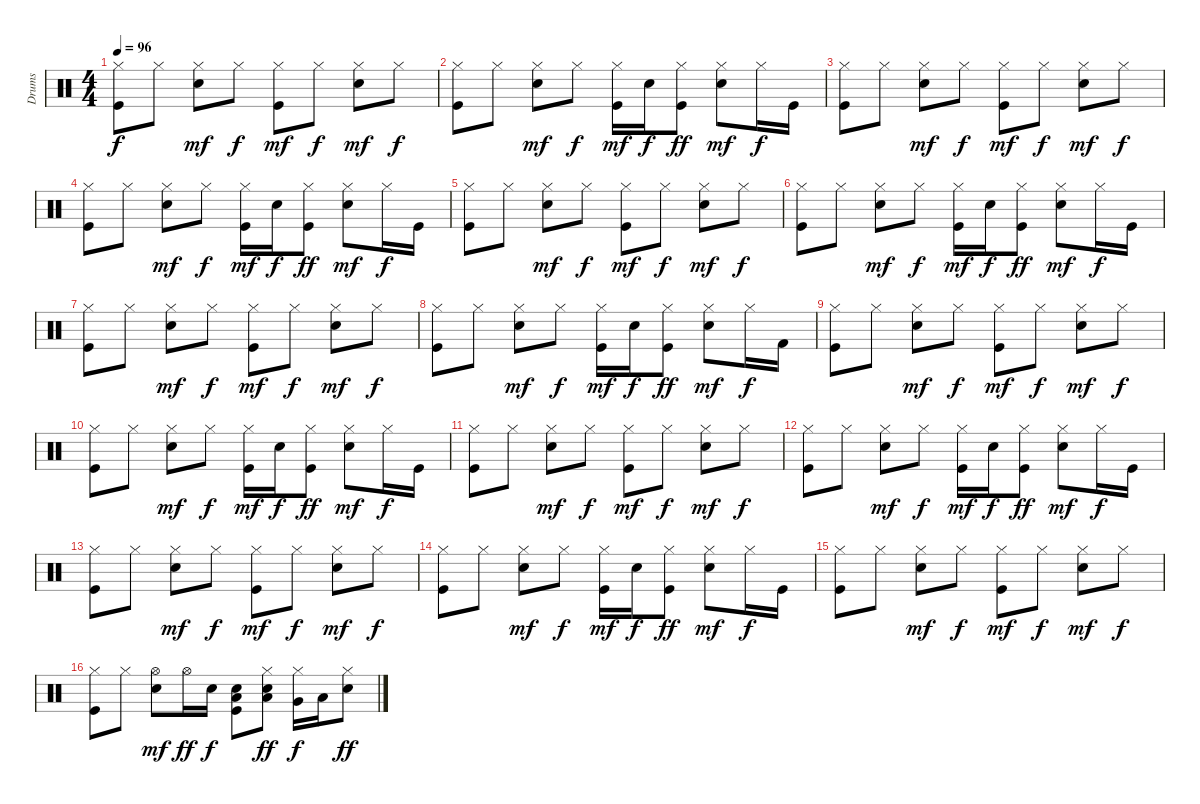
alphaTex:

\track ("Drums" "Drums") {instrument percussion}
\staff {score}
\articulation defaults
\ts (4 4)
\tempo 96
\clef neutral
\ks c
("Kick (hit)" "Hi-Hat (closed)").8{dy f} "Hi-Hat (closed)".8 ("Hi-Hat (closed)" "Electric Snare (hit)").8{dy mf} "Hi-Hat (closed)".8{dy f} ("Kick (hit)" "Hi-Hat (closed)").8{dy mf} "Hi-Hat (closed)".8{dy f} ("Hi-Hat (closed)" "Electric Snare (hit)").8{dy mf} "Hi-Hat (closed)".8{dy f} |
("Kick (hit)" "Hi-Hat (closed)").8 "Hi-Hat (closed)".8 ("Hi-Hat (closed)" "Electric Snare (hit)").8{dy mf} "Hi-Hat (closed)".8{dy f} ("Kick (hit)" "Hi-Hat (closed)").16{dy mf} "Electric Snare (hit)".16{dy f} ("Kick (hit)" "Hi-Hat (closed)").8{dy ff} ("Hi-Hat (closed)" "Electric Snare (hit)").8{dy mf} "Hi-Hat (closed)".16{dy f} "Kick (hit)".16 |
("Kick (hit)" "Hi-Hat (closed)").8 "Hi-Hat (closed)".8 ("Hi-Hat (closed)" "Electric Snare (hit)").8{dy mf} "Hi-Hat (closed)".8{dy f} ("Kick (hit)" "Hi-Hat (closed)").8{dy mf} "Hi-Hat (closed)".8{dy f} ("Hi-Hat (closed)" "Electric Snare (hit)").8{dy mf} "Hi-Hat (closed)".8{dy f} |
("Kick (hit)" "Hi-Hat (closed)").8 "Hi-Hat (closed)".8 ("Hi-Hat (closed)" "Electric Snare (hit)").8{dy mf} "Hi-Hat (closed)".8{dy f} ("Kick (hit)" "Hi-Hat (closed)").16{dy mf} "Electric Snare (hit)".16{dy f} ("Kick (hit)" "Hi-Hat (closed)").8{dy ff} ("Hi-Hat (closed)" "Electric Snare (hit)").8{dy mf} "Hi-Hat (closed)".16{dy f} "Kick (hit)".16 |
("Kick (hit)" "Hi-Hat (closed)").8 "Hi-Hat (closed)".8 ("Hi-Hat (closed)" "Electric Snare (hit)").8{dy mf} "Hi-Hat (closed)".8{dy f} ("Kick (hit)" "Hi-Hat (closed)").8{dy mf} "Hi-Hat (closed)".8{dy f} ("Hi-Hat (closed)" "Electric Snare (hit)").8{dy mf} "Hi-Hat (closed)".8{dy f} |
("Kick (hit)" "Hi-Hat (closed)").8 "Hi-Hat (closed)".8 ("Hi-Hat (closed)" "Electric Snare (hit)").8{dy mf} "Hi-Hat (closed)".8{dy f} ("Kick (hit)" "Hi-Hat (closed)").16{dy mf} "Electric Snare (hit)".16{dy f} ("Kick (hit)" "Hi-Hat (closed)").8{dy ff} ("Hi-Hat (closed)" "Electric Snare (hit)").8{dy mf} "Hi-Hat (closed)".16{dy f} "Kick (hit)".16 |
("Kick (hit)" "Hi-Hat (closed)").8 "Hi-Hat (closed)".8 ("Hi-Hat (closed)" "Electric Snare (hit)").8{dy mf} "Hi-Hat (closed)".8{dy f} ("Kick (hit)" "Hi-Hat (closed)").8{dy mf} "Hi-Hat (closed)".8{dy f} ("Hi-Hat (closed)" "Electric Snare (hit)").8{dy mf} "Hi-Hat (closed)".8{dy f} |
("Kick (hit)" "Hi-Hat (closed)").8 "Hi-Hat (closed)".8 ("Hi-Hat (closed)" "Electric Snare (hit)").8{dy mf} "Hi-Hat (closed)".8{dy f} ("Kick (hit)" "Hi-Hat (closed)").16{dy mf} "Electric Snare (hit)".16{dy f} ("Kick (hit)" "Hi-Hat (closed)").8{dy ff} ("Hi-Hat (closed)" "Electric Snare (hit)").8{dy mf} "Hi-Hat (closed)".16{dy f} "Kick (hit) 2".16 |
("Kick (hit)" "Hi-Hat (closed)").8 "Hi-Hat (closed)".8 ("Hi-Hat (closed)" "Electric Snare (hit)").8{dy mf} "Hi-Hat (closed)".8{dy f} ("Kick (hit)" "Hi-Hat (closed)").8{dy mf} "Hi-Hat (closed)".8{dy f} ("Hi-Hat (closed)" "Electric Snare (hit)").8{dy mf} "Hi-Hat (closed)".8{dy f} |
("Kick (hit)" "Hi-Hat (closed)").8 "Hi-Hat (closed)".8 ("Hi-Hat (closed)" "Electric Snare (hit)").8{dy mf} "Hi-Hat (closed)".8{dy f} ("Kick (hit)" "Hi-Hat (closed)").16{dy mf} "Electric Snare (hit)".16{dy f} ("Kick (hit)" "Hi-Hat (closed)").8{dy ff} ("Hi-Hat (closed)" "Electric Snare (hit)").8{dy mf} "Hi-Hat (closed)".16{dy f} "Kick (hit)".16 |
("Kick (hit)" "Hi-Hat (closed)").8 "Hi-Hat (closed)".8 ("Hi-Hat (closed)" "Electric Snare (hit)").8{dy mf} "Hi-Hat (closed)".8{dy f} ("Kick (hit)" "Hi-Hat (closed)").8{dy mf} "Hi-Hat (closed)".8{dy f} ("Hi-Hat (closed)" "Electric Snare (hit)").8{dy mf} "Hi-Hat (closed)".8{dy f} |
("Kick (hit)" "Hi-Hat (closed)").8 "Hi-Hat (closed)".8 ("Hi-Hat (closed)" "Electric Snare (hit)").8{dy mf} "Hi-Hat (closed)".8{dy f} ("Kick (hit)" "Hi-Hat (closed)").16{dy mf} "Electric Snare (hit)".16{dy f} ("Kick (hit)" "Hi-Hat (closed)").8{dy ff} ("Hi-Hat (closed)" "Electric Snare (hit)").8{dy mf} "Hi-Hat (closed)".16{dy f} "Kick (hit)".16 |
("Kick (hit)" "Hi-Hat (closed)").8 "Hi-Hat (closed)".8 ("Hi-Hat (closed)" "Electric Snare (hit)").8{dy mf} "Hi-Hat (closed)".8{dy f} ("Kick (hit)" "Hi-Hat (closed)").8{dy mf} "Hi-Hat (closed)".8{dy f} ("Hi-Hat (closed)" "Electric Snare (hit)").8{dy mf} "Hi-Hat (closed)".8{dy f} |
("Kick (hit)" "Hi-Hat (closed)").8 "Hi-Hat (closed)".8 ("Hi-Hat (closed)" "Electric Snare (hit)").8{dy mf} "Hi-Hat (closed)".8{dy f} ("Kick (hit)" "Hi-Hat (closed)").16{dy mf} "Electric Snare (hit)".16{dy f} ("Kick (hit)" "Hi-Hat (closed)").8{dy ff} ("Hi-Hat (closed)" "Electric Snare (hit)").8{dy mf} "Hi-Hat (closed)".16{dy f} "Kick (hit)".16 |
("Kick (hit)" "Hi-Hat (closed)").8 "Hi-Hat (closed)".8 ("Hi-Hat (closed)" "Electric Snare (hit)").8{dy mf} "Hi-Hat (closed)".8{dy f} ("Kick (hit)" "Hi-Hat (closed)").8{dy mf} "Hi-Hat (closed)".8{dy f} ("Hi-Hat (closed)" "Electric Snare (hit)").8{dy mf} "Hi-Hat (closed)".8{dy f} |
("Kick (hit)" "Hi-Hat (closed)").8 "Hi-Hat (closed)".8 ("Hi-Hat (open)" "Electric Snare (hit)").8{dy mf} "Hi-Hat (open)".16{dy ff} "Electric Snare (hit)".16{dy f} ("Kick (hit)" "Electric Snare (hit)" "Low Tom (hit)").8 ("Hi-Hat (closed)" "Electric Snare (hit)" "Low Floor Tom (hit)").8{dy ff} ("Hi-Hat (closed)" "Very Low Tom (hit)").16{dy f} "Low Floor Tom (hit)".16 ("Hi-Hat (closed)" "Electric Snare (hit)").8{dy ff}
